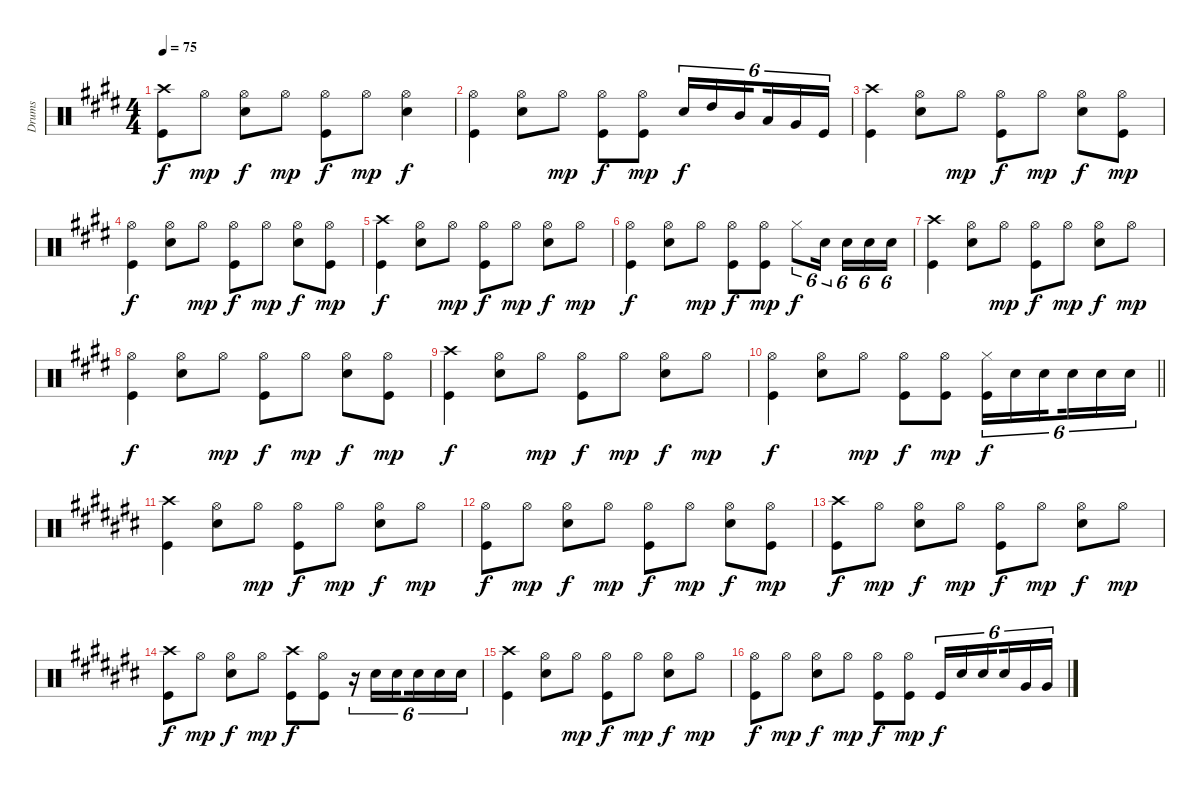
\track ("Drums" "Drums") {instrument percussion}
\staff {score}
\articulation defaults
\ts (4 4)
\tempo 75
\clef neutral
\ks e
("Crash high (hit)" "Kick (hit)").8{dy f} "Hi-Hat (open)".8{dy mp} ("Hi-Hat (open)" "Snare (hit) 2").8{dy f} "Hi-Hat (open)".8{dy mp} ("Hi-Hat (open)" "Kick (hit)").8{dy f} "Hi-Hat (open)".8{dy mp} ("Hi-Hat (open)" "Snare (hit) 2").4{dy f} |
("Hi-Hat (open)" "Kick (hit)").4 ("Hi-Hat (open)" "Snare (hit) 2").8 "Hi-Hat (open)".8{dy mp} ("Hi-Hat (open)" "Kick (hit)").8{dy f} ("Hi-Hat (open)" "Kick (hit)").8{dy mp} "Snare (hit) 2".16{tu (6 4) dy f} "High Tom (hit)".16{tu (6 4)} "Mid Tom (hit)".16{tu (6 4) beam splitsecondary} "Low Tom (hit)".16{tu (6 4)} "Very Low Tom (hit)".16{tu (6 4)} "Kick (hit)".16{tu (6 4)} |
("Crash high (hit)" "Kick (hit)").4 ("Hi-Hat (open)" "Snare (hit) 2").8 "Hi-Hat (open)".8{dy mp} ("Hi-Hat (open)" "Kick (hit)").8{dy f} "Hi-Hat (open)".8{dy mp} ("Hi-Hat (open)" "Snare (hit) 2").8{dy f} ("Hi-Hat (open)" "Kick (hit)").8{dy mp} |
("Hi-Hat (open)" "Kick (hit)").4{dy f} ("Hi-Hat (open)" "Snare (hit) 2").8 "Hi-Hat (open)".8{dy mp} ("Hi-Hat (open)" "Kick (hit)").8{dy f} "Hi-Hat (open)".8{dy mp} ("Hi-Hat (open)" "Snare (hit) 2").8{dy f} ("Hi-Hat (open)" "Kick (hit)").8{dy mp} |
("Crash high (hit)" "Kick (hit)").4{dy f} ("Hi-Hat (open)" "Snare (hit) 2").8 "Hi-Hat (open)".8{dy mp} ("Hi-Hat (open)" "Kick (hit)").8{dy f} "Hi-Hat (open)".8{dy mp} ("Hi-Hat (open)" "Snare (hit) 2").8{dy f} "Hi-Hat (open)".8{dy mp} |
("Hi-Hat (open)" "Kick (hit)").4{dy f} ("Hi-Hat (open)" "Snare (hit) 2").8 "Hi-Hat (open)".8{dy mp} ("Hi-Hat (open)" "Kick (hit)").8{dy f} ("Hi-Hat (open)" "Kick (hit)").8{dy mp} "Hi-Hat (closed)".8{tu (6 4) dy f} "Snare (hit) 2".16{tu (6 4) beam splitsecondary} "Snare (hit) 2".16{tu (6 4)} "Snare (hit) 2".16{tu (6 4)} "Snare (hit) 2".16{tu (6 4)} |
("Crash high (hit)" "Kick (hit)").4 ("Hi-Hat (open)" "Snare (hit) 2").8 "Hi-Hat (open)".8{dy mp} ("Hi-Hat (open)" "Kick (hit)").8{dy f} "Hi-Hat (open)".8{dy mp} ("Hi-Hat (open)" "Snare (hit) 2").8{dy f} "Hi-Hat (open)".8{dy mp} |
("Hi-Hat (open)" "Kick (hit)").4{dy f} ("Hi-Hat (open)" "Snare (hit) 2").8 "Hi-Hat (open)".8{dy mp} ("Hi-Hat (open)" "Kick (hit)").8{dy f} "Hi-Hat (open)".8{dy mp} ("Hi-Hat (open)" "Snare (hit) 2").8{dy f} ("Hi-Hat (open)" "Kick (hit)").8{dy mp} |
("Crash high (hit)" "Kick (hit)").4{dy f} ("Hi-Hat (open)" "Snare (hit) 2").8 "Hi-Hat (open)".8{dy mp} ("Hi-Hat (open)" "Kick (hit)").8{dy f} "Hi-Hat (open)".8{dy mp} ("Hi-Hat (open)" "Snare (hit) 2").8{dy f} "Hi-Hat (open)".8{dy mp} |
\barLineRight lightlight
("Hi-Hat (open)" "Kick (hit)").4{dy f} ("Hi-Hat (open)" "Snare (hit) 2").8 "Hi-Hat (open)".8{dy mp} ("Hi-Hat (open)" "Kick (hit)").8{dy f} ("Hi-Hat (open)" "Kick (hit)").8{dy mp} ("Hi-Hat (closed)" "Kick (hit)").16{tu (6 4) dy f} "Snare (hit) 2".16{tu (6 4)} "Snare (hit) 2".16{tu (6 4) beam splitsecondary} "Snare (hit) 2".16{tu (6 4)} "Snare (hit) 2".16{tu (6 4)} "Snare (hit) 2".16{tu (6 4)} |
\ks c#
("Crash high (hit)" "Kick (hit)").4 ("Hi-Hat (open)" "Snare (hit) 2").8 "Hi-Hat (open)".8{dy mp} ("Hi-Hat (open)" "Kick (hit)").8{dy f} "Hi-Hat (open)".8{dy mp} ("Hi-Hat (open)" "Snare (hit) 2").8{dy f} "Hi-Hat (open)".8{dy mp} |
("Hi-Hat (open)" "Kick (hit)").8{dy f} "Hi-Hat (open)".8{dy mp} ("Hi-Hat (open)" "Snare (hit) 2").8{dy f} "Hi-Hat (open)".8{dy mp} ("Hi-Hat (open)" "Kick (hit)").8{dy f} "Hi-Hat (open)".8{dy mp} ("Hi-Hat (open)" "Snare (hit) 2").8{dy f} ("Hi-Hat (open)" "Kick (hit)").8{dy mp} |
("Crash high (hit)" "Kick (hit)").8{dy f} "Hi-Hat (open)".8{dy mp} ("Hi-Hat (open)" "Snare (hit) 2").8{dy f} "Hi-Hat (open)".8{dy mp} ("Hi-Hat (open)" "Kick (hit)").8{dy f} "Hi-Hat (open)".8{dy mp} ("Hi-Hat (open)" "Snare (hit) 2").8{dy f} "Hi-Hat (open)".8{dy mp} |
("Crash high (hit)" "Kick (hit)").8{dy f} "Hi-Hat (open)".8{dy mp} ("Hi-Hat (open)" "Snare (hit) 2").8{dy f} "Hi-Hat (open)".8{dy mp} ("Crash high (hit)" "Kick (hit)").8{dy f} ("Hi-Hat (open)" "Kick (hit)").8 r.16{tu (6 4)} "Snare (hit) 2".16{tu (6 4)} "Snare (hit) 2".16{tu (6 4) beam splitsecondary} "Snare (hit) 2".16{tu (6 4)} "Snare (hit) 2".16{tu (6 4)} "Snare (hit) 2".16{tu (6 4)} |
("Crash high (hit)" "Kick (hit)").4 ("Hi-Hat (open)" "Snare (hit) 2").8 "Hi-Hat (open)".8{dy mp} ("Hi-Hat (open)" "Kick (hit)").8{dy f} "Hi-Hat (open)".8{dy mp} ("Hi-Hat (open)" "Snare (hit) 2").8{dy f} "Hi-Hat (open)".8{dy mp} |
("Hi-Hat (open)" "Kick (hit)").8{dy f} "Hi-Hat (open)".8{dy mp} ("Hi-Hat (open)" "Snare (hit) 2").8{dy f} "Hi-Hat (open)".8{dy mp} ("Hi-Hat (open)" "Kick (hit)").8{dy f} ("Hi-Hat (open)" "Kick (hit)").8{dy mp} "Kick (hit)".16{tu (6 4) dy f} "Snare (hit) 2".16{tu (6 4)} "Snare (hit) 2".16{tu (6 4) beam splitsecondary} "Snare (hit) 2".16{tu (6 4)} "Very Low Tom (hit)".16{tu (6 4)} "Very Low Tom (hit)".16{tu (6 4)}
